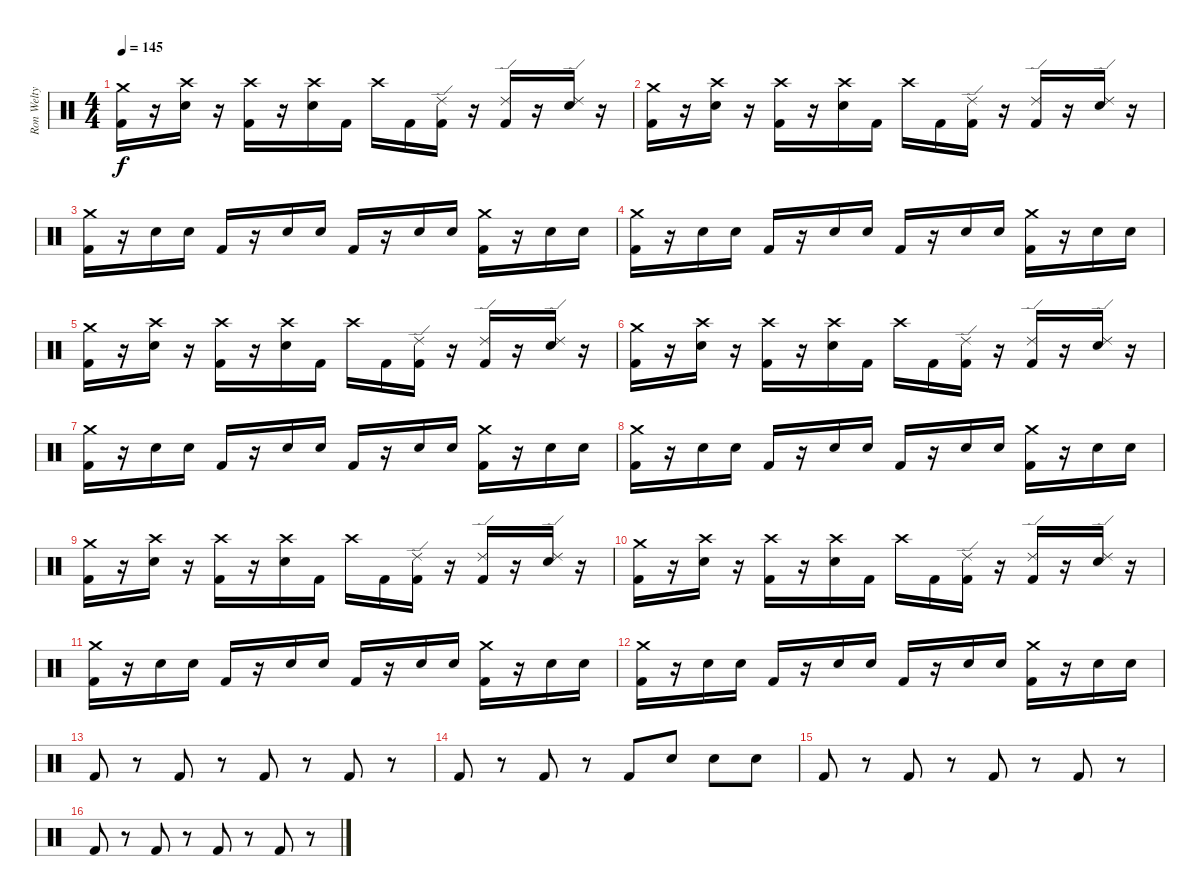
\track ("Ron Welty" "Ron Welty") {instrument percussion}
\staff {score}
\articulation defaults
\ts (4 4)
\tempo 145
\clef neutral
\ks c
("Kick (hit) 2" "Crash medium (hit)").16{dy f} r.16 ("Snare (hit) 2" "Crash high (hit)").16 r.16 ("Kick (hit) 2" "Crash high (hit)").16 r.16 ("Snare (hit) 2" "Crash high (hit)").16 "Kick (hit) 2".16 "Crash high (hit)".16 "Kick (hit) 2".16 ("Kick (hit) 2" "Ride (edge) 2").16 r.16 ("Kick (hit) 2" "Ride (edge) 2").16 r.16 ("Snare (hit) 2" "Ride (edge) 2").16 r.16 |
("Kick (hit) 2" "Crash medium (hit)").16 r.16 ("Snare (hit) 2" "Crash high (hit)").16 r.16 ("Kick (hit) 2" "Crash high (hit)").16 r.16 ("Snare (hit) 2" "Crash high (hit)").16 "Kick (hit) 2".16 "Crash high (hit)".16 "Kick (hit) 2".16 ("Kick (hit) 2" "Ride (edge) 2").16 r.16 ("Kick (hit) 2" "Ride (edge) 2").16 r.16 ("Snare (hit) 2" "Ride (edge) 2").16 r.16 |
("Kick (hit) 2" "Crash medium (hit)").16 r.16 "Snare (hit) 2".16 "Snare (hit) 2".16 "Kick (hit) 2".16 r.16 "Snare (hit) 2".16 "Snare (hit) 2".16 "Kick (hit) 2".16 r.16 "Snare (hit) 2".16 "Snare (hit) 2".16 ("Kick (hit) 2" "Crash medium (hit)").16 r.16 "Snare (hit) 2".16 "Snare (hit) 2".16 |
("Kick (hit) 2" "Crash medium (hit)").16 r.16 "Snare (hit) 2".16 "Snare (hit) 2".16 "Kick (hit) 2".16 r.16 "Snare (hit) 2".16 "Snare (hit) 2".16 "Kick (hit) 2".16 r.16 "Snare (hit) 2".16 "Snare (hit) 2".16 ("Kick (hit) 2" "Crash medium (hit)").16 r.16 "Snare (hit) 2".16 "Snare (hit) 2".16 |
("Kick (hit) 2" "Crash medium (hit)").16 r.16 ("Snare (hit) 2" "Crash high (hit)").16 r.16 ("Kick (hit) 2" "Crash high (hit)").16 r.16 ("Snare (hit) 2" "Crash high (hit)").16 "Kick (hit) 2".16 "Crash high (hit)".16 "Kick (hit) 2".16 ("Kick (hit) 2" "Ride (edge) 2").16 r.16 ("Kick (hit) 2" "Ride (edge) 2").16 r.16 ("Snare (hit) 2" "Ride (edge) 2").16 r.16 |
("Kick (hit) 2" "Crash medium (hit)").16 r.16 ("Snare (hit) 2" "Crash high (hit)").16 r.16 ("Kick (hit) 2" "Crash high (hit)").16 r.16 ("Snare (hit) 2" "Crash high (hit)").16 "Kick (hit) 2".16 "Crash high (hit)".16 "Kick (hit) 2".16 ("Kick (hit) 2" "Ride (edge) 2").16 r.16 ("Kick (hit) 2" "Ride (edge) 2").16 r.16 ("Snare (hit) 2" "Ride (edge) 2").16 r.16 |
("Kick (hit) 2" "Crash medium (hit)").16 r.16 "Snare (hit) 2".16 "Snare (hit) 2".16 "Kick (hit) 2".16 r.16 "Snare (hit) 2".16 "Snare (hit) 2".16 "Kick (hit) 2".16 r.16 "Snare (hit) 2".16 "Snare (hit) 2".16 ("Kick (hit) 2" "Crash medium (hit)").16 r.16 "Snare (hit) 2".16 "Snare (hit) 2".16 |
("Kick (hit) 2" "Crash medium (hit)").16 r.16 "Snare (hit) 2".16 "Snare (hit) 2".16 "Kick (hit) 2".16 r.16 "Snare (hit) 2".16 "Snare (hit) 2".16 "Kick (hit) 2".16 r.16 "Snare (hit) 2".16 "Snare (hit) 2".16 ("Kick (hit) 2" "Crash medium (hit)").16 r.16 "Snare (hit) 2".16 "Snare (hit) 2".16 |
("Kick (hit) 2" "Crash medium (hit)").16 r.16 ("Snare (hit) 2" "Crash high (hit)").16 r.16 ("Kick (hit) 2" "Crash high (hit)").16 r.16 ("Snare (hit) 2" "Crash high (hit)").16 "Kick (hit) 2".16 "Crash high (hit)".16 "Kick (hit) 2".16 ("Kick (hit) 2" "Ride (edge) 2").16 r.16 ("Kick (hit) 2" "Ride (edge) 2").16 r.16 ("Snare (hit) 2" "Ride (edge) 2").16 r.16 |
("Kick (hit) 2" "Crash medium (hit)").16 r.16 ("Snare (hit) 2" "Crash high (hit)").16 r.16 ("Kick (hit) 2" "Crash high (hit)").16 r.16 ("Snare (hit) 2" "Crash high (hit)").16 "Kick (hit) 2".16 "Crash high (hit)".16 "Kick (hit) 2".16 ("Kick (hit) 2" "Ride (edge) 2").16 r.16 ("Kick (hit) 2" "Ride (edge) 2").16 r.16 ("Snare (hit) 2" "Ride (edge) 2").16 r.16 |
("Kick (hit) 2" "Crash medium (hit)").16 r.16 "Snare (hit) 2".16 "Snare (hit) 2".16 "Kick (hit) 2".16 r.16 "Snare (hit) 2".16 "Snare (hit) 2".16 "Kick (hit) 2".16 r.16 "Snare (hit) 2".16 "Snare (hit) 2".16 ("Kick (hit) 2" "Crash medium (hit)").16 r.16 "Snare (hit) 2".16 "Snare (hit) 2".16 |
("Kick (hit) 2" "Crash medium (hit)").16 r.16 "Snare (hit) 2".16 "Snare (hit) 2".16 "Kick (hit) 2".16 r.16 "Snare (hit) 2".16 "Snare (hit) 2".16 "Kick (hit) 2".16 r.16 "Snare (hit) 2".16 "Snare (hit) 2".16 ("Kick (hit) 2" "Crash medium (hit)").16 r.16 "Snare (hit) 2".16 "Snare (hit) 2".16 |
"Kick (hit) 2".8 r.8 "Kick (hit) 2".8 r.8 "Kick (hit) 2".8 r.8 "Kick (hit) 2".8 r.8 |
"Kick (hit) 2".8 r.8 "Kick (hit) 2".8 r.8 "Kick (hit) 2".8 "Snare (hit) 2".8 "Snare (hit) 2".8 "Snare (hit) 2".8 |
"Kick (hit) 2".8 r.8 "Kick (hit) 2".8 r.8 "Kick (hit) 2".8 r.8 "Kick (hit) 2".8 r.8 |
"Kick (hit) 2".8 r.8 "Kick (hit) 2".8 r.8 "Kick (hit) 2".8 r.8 "Kick (hit) 2".8 r.8
